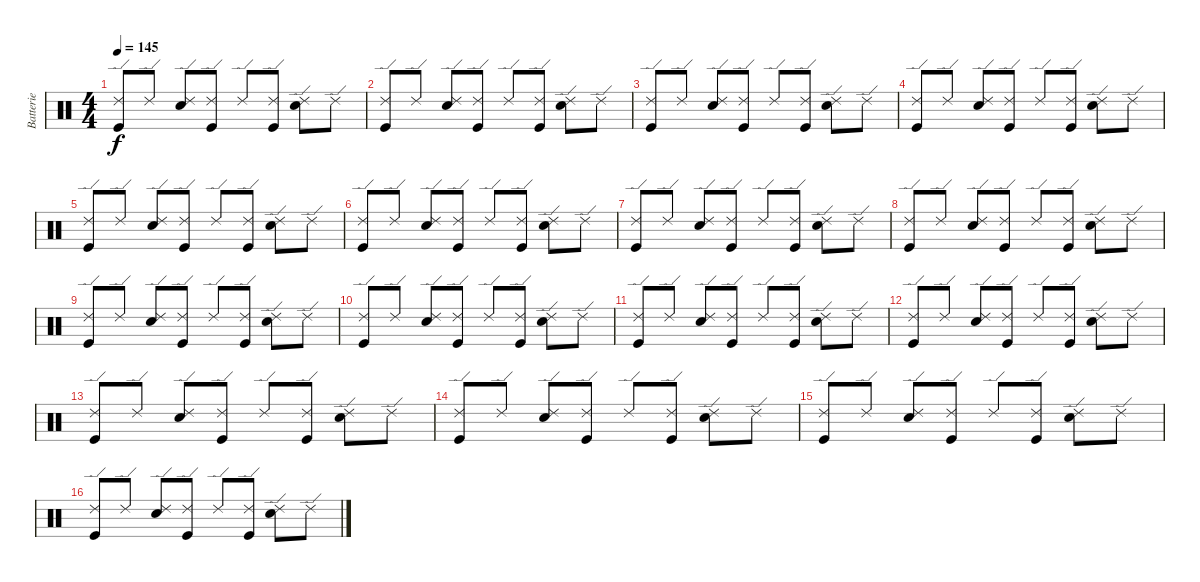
\track ("Batterie" "Batterie") {instrument percussion}
\staff {score}
\articulation defaults
\ts (4 4)
\tempo 145
\clef neutral
\ks c
("Ride (edge) 2" "Kick (hit)").8{dy f} "Ride (edge) 2".8 ("Ride (edge) 2" "Snare (hit) 2").8 ("Ride (edge) 2" "Kick (hit)").8 "Ride (edge) 2".8 ("Ride (edge) 2" "Kick (hit)").8 ("Ride (edge) 2" "Snare (hit) 2").8 "Ride (edge) 2".8 |
("Ride (edge) 2" "Kick (hit)").8 "Ride (edge) 2".8 ("Ride (edge) 2" "Snare (hit) 2").8 ("Ride (edge) 2" "Kick (hit)").8 "Ride (edge) 2".8 ("Ride (edge) 2" "Kick (hit)").8 ("Ride (edge) 2" "Snare (hit) 2").8 "Ride (edge) 2".8 |
("Ride (edge) 2" "Kick (hit)").8 "Ride (edge) 2".8 ("Ride (edge) 2" "Snare (hit) 2").8 ("Ride (edge) 2" "Kick (hit)").8 "Ride (edge) 2".8 ("Ride (edge) 2" "Kick (hit)").8 ("Ride (edge) 2" "Snare (hit) 2").8 "Ride (edge) 2".8 |
("Ride (edge) 2" "Kick (hit)").8 "Ride (edge) 2".8 ("Ride (edge) 2" "Snare (hit) 2").8 ("Ride (edge) 2" "Kick (hit)").8 "Ride (edge) 2".8 ("Ride (edge) 2" "Kick (hit)").8 ("Ride (edge) 2" "Snare (hit) 2").8 "Ride (edge) 2".8 |
("Ride (edge) 2" "Kick (hit)").8 "Ride (edge) 2".8 ("Ride (edge) 2" "Snare (hit) 2").8 ("Ride (edge) 2" "Kick (hit)").8 "Ride (edge) 2".8 ("Ride (edge) 2" "Kick (hit)").8 ("Ride (edge) 2" "Snare (hit) 2").8 "Ride (edge) 2".8 |
("Ride (edge) 2" "Kick (hit)").8 "Ride (edge) 2".8 ("Ride (edge) 2" "Snare (hit) 2").8 ("Ride (edge) 2" "Kick (hit)").8 "Ride (edge) 2".8 ("Ride (edge) 2" "Kick (hit)").8 ("Ride (edge) 2" "Snare (hit) 2").8 "Ride (edge) 2".8 |
("Ride (edge) 2" "Kick (hit)").8 "Ride (edge) 2".8 ("Ride (edge) 2" "Snare (hit) 2").8 ("Ride (edge) 2" "Kick (hit)").8 "Ride (edge) 2".8 ("Ride (edge) 2" "Kick (hit)").8 ("Ride (edge) 2" "Snare (hit) 2").8 "Ride (edge) 2".8 |
("Ride (edge) 2" "Kick (hit)").8 "Ride (edge) 2".8 ("Ride (edge) 2" "Snare (hit) 2").8 ("Ride (edge) 2" "Kick (hit)").8 "Ride (edge) 2".8 ("Ride (edge) 2" "Kick (hit)").8 ("Ride (edge) 2" "Snare (hit) 2").8 "Ride (edge) 2".8 |
("Ride (edge) 2" "Kick (hit)").8 "Ride (edge) 2".8 ("Ride (edge) 2" "Snare (hit) 2").8 ("Ride (edge) 2" "Kick (hit)").8 "Ride (edge) 2".8 ("Ride (edge) 2" "Kick (hit)").8 ("Ride (edge) 2" "Snare (hit) 2").8 "Ride (edge) 2".8 |
("Ride (edge) 2" "Kick (hit)").8 "Ride (edge) 2".8 ("Ride (edge) 2" "Snare (hit) 2").8 ("Ride (edge) 2" "Kick (hit)").8 "Ride (edge) 2".8 ("Ride (edge) 2" "Kick (hit)").8 ("Ride (edge) 2" "Snare (hit) 2").8 "Ride (edge) 2".8 |
("Ride (edge) 2" "Kick (hit)").8 "Ride (edge) 2".8 ("Ride (edge) 2" "Snare (hit) 2").8 ("Ride (edge) 2" "Kick (hit)").8 "Ride (edge) 2".8 ("Ride (edge) 2" "Kick (hit)").8 ("Ride (edge) 2" "Snare (hit) 2").8 "Ride (edge) 2".8 |
("Ride (edge) 2" "Kick (hit)").8 "Ride (edge) 2".8 ("Ride (edge) 2" "Snare (hit) 2").8 ("Ride (edge) 2" "Kick (hit)").8 "Ride (edge) 2".8 ("Ride (edge) 2" "Kick (hit)").8 ("Ride (edge) 2" "Snare (hit) 2").8 "Ride (edge) 2".8 |
("Ride (edge) 2" "Kick (hit)").8 "Ride (edge) 2".8 ("Ride (edge) 2" "Snare (hit) 2").8 ("Ride (edge) 2" "Kick (hit)").8 "Ride (edge) 2".8 ("Ride (edge) 2" "Kick (hit)").8 ("Ride (edge) 2" "Snare (hit) 2").8 "Ride (edge) 2".8 |
("Ride (edge) 2" "Kick (hit)").8 "Ride (edge) 2".8 ("Ride (edge) 2" "Snare (hit) 2").8 ("Ride (edge) 2" "Kick (hit)").8 "Ride (edge) 2".8 ("Ride (edge) 2" "Kick (hit)").8 ("Ride (edge) 2" "Snare (hit) 2").8 "Ride (edge) 2".8 |
("Ride (edge) 2" "Kick (hit)").8 "Ride (edge) 2".8 ("Ride (edge) 2" "Snare (hit) 2").8 ("Ride (edge) 2" "Kick (hit)").8 "Ride (edge) 2".8 ("Ride (edge) 2" "Kick (hit)").8 ("Ride (edge) 2" "Snare (hit) 2").8 "Ride (edge) 2".8 |
("Ride (edge) 2" "Kick (hit)").8 "Ride (edge) 2".8 ("Ride (edge) 2" "Snare (hit) 2").8 ("Ride (edge) 2" "Kick (hit)").8 "Ride (edge) 2".8 ("Ride (edge) 2" "Kick (hit)").8 ("Ride (edge) 2" "Snare (hit) 2").8 "Ride (edge) 2".8
